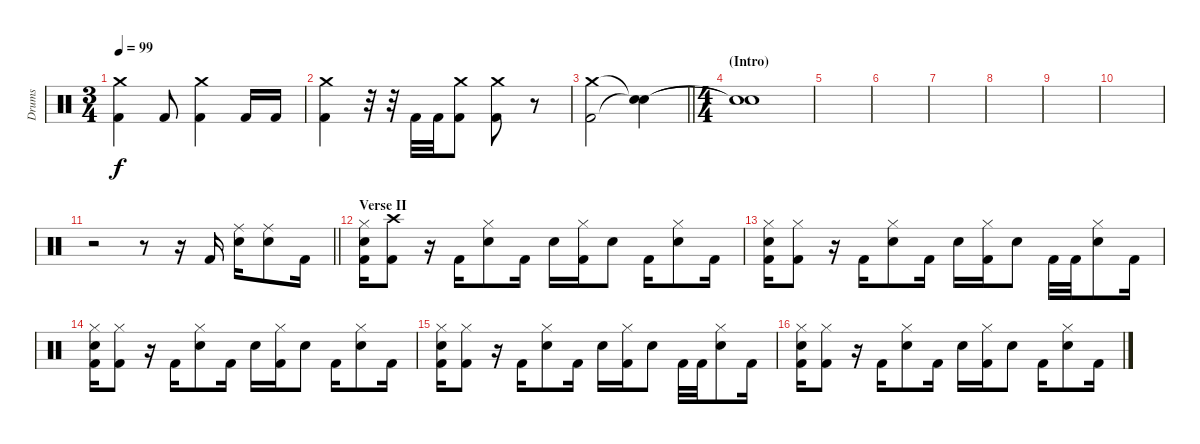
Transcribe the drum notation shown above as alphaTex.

\track ("Drums" "Drums") {instrument percussion}
\staff {score}
\articulation defaults
\ts (3 4)
\tempo 99
\clef neutral
\ks c
("Crash medium (hit)" "Kick (hit) 2").4{dy f} "Kick (hit) 2".8 ("Crash medium (hit)" "Kick (hit) 2").4 "Kick (hit) 2".16 "Kick (hit) 2".16 |
("Crash medium (hit)" "Kick (hit) 2").4 r.32 r.32 "Kick (hit) 2".32 "Kick (hit) 2".32 ("Crash medium (hit)" "Kick (hit) 2").8 ("Crash medium (hit)" "Kick (hit) 2").8 r.8 |
\barLineRight lightlight
("Crash medium (hit)" "Kick (hit) 2").2 ("Snare (hit)"{t} "Snare (hit)"{t}).4 |
\ts (4 4)
\section ("" "(Intro)")
("Snare (hit)"{t} "Snare (hit)"{t}).1 |
|
|
|
|
|
|
\barLineRight lightlight
r.2 r.8 r.16 "Kick (hit) 2".16 ("Ride (middle)" "Snare (hit) 2").16 ("Ride (middle)" "Snare (hit) 2").8 "Kick (hit) 2".16 |
\section ("" "Verse II")
("Hi-Hat (closed)" "Snare (hit) 2" "Kick (hit) 2").16 ("Crash high (hit)" "Kick (hit) 2").8 r.16 "Kick (hit) 2".16 ("Hi-Hat (closed)" "Snare (hit) 2").8 "Kick (hit) 2".16 "Snare (hit) 2".16 ("Hi-Hat (closed)" "Kick (hit) 2").16 "Snare (hit) 2".8 "Kick (hit) 2".16 ("Hi-Hat (closed)" "Snare (hit) 2").8 "Kick (hit) 2".16 |
("Hi-Hat (closed)" "Snare (hit) 2" "Kick (hit) 2").16 ("Hi-Hat (closed)" "Kick (hit) 2").8 r.16 "Kick (hit) 2".16 ("Hi-Hat (closed)" "Snare (hit) 2").8 "Kick (hit) 2".16 "Snare (hit) 2".16 ("Hi-Hat (closed)" "Kick (hit) 2").16 "Snare (hit) 2".8 "Kick (hit) 2".32 "Kick (hit) 2".32 ("Hi-Hat (closed)" "Snare (hit) 2").8 "Kick (hit) 2".16 |
("Hi-Hat (closed)" "Snare (hit) 2" "Kick (hit) 2").16 ("Hi-Hat (closed)" "Kick (hit) 2").8 r.16 "Kick (hit) 2".16 ("Hi-Hat (closed)" "Snare (hit) 2").8 "Kick (hit) 2".16 "Snare (hit) 2".16 ("Hi-Hat (closed)" "Kick (hit) 2").16 "Snare (hit) 2".8 "Kick (hit) 2".16 ("Hi-Hat (closed)" "Snare (hit) 2").8 "Kick (hit) 2".16 |
("Hi-Hat (closed)" "Snare (hit) 2" "Kick (hit) 2").16 ("Hi-Hat (closed)" "Kick (hit) 2").8 r.16 "Kick (hit) 2".16 ("Hi-Hat (closed)" "Snare (hit) 2").8 "Kick (hit) 2".16 "Snare (hit) 2".16 ("Hi-Hat (closed)" "Kick (hit) 2").16 "Snare (hit) 2".8 "Kick (hit) 2".32 "Kick (hit) 2".32 ("Hi-Hat (closed)" "Snare (hit) 2").8 "Kick (hit) 2".16 |
("Hi-Hat (closed)" "Snare (hit) 2" "Kick (hit) 2").16 ("Hi-Hat (closed)" "Kick (hit) 2").8 r.16 "Kick (hit) 2".16 ("Hi-Hat (closed)" "Snare (hit) 2").8 "Kick (hit) 2".16 "Snare (hit) 2".16 ("Hi-Hat (closed)" "Kick (hit) 2").16 "Snare (hit) 2".8 "Kick (hit) 2".16 ("Hi-Hat (closed)" "Snare (hit) 2").8 "Kick (hit) 2".16
